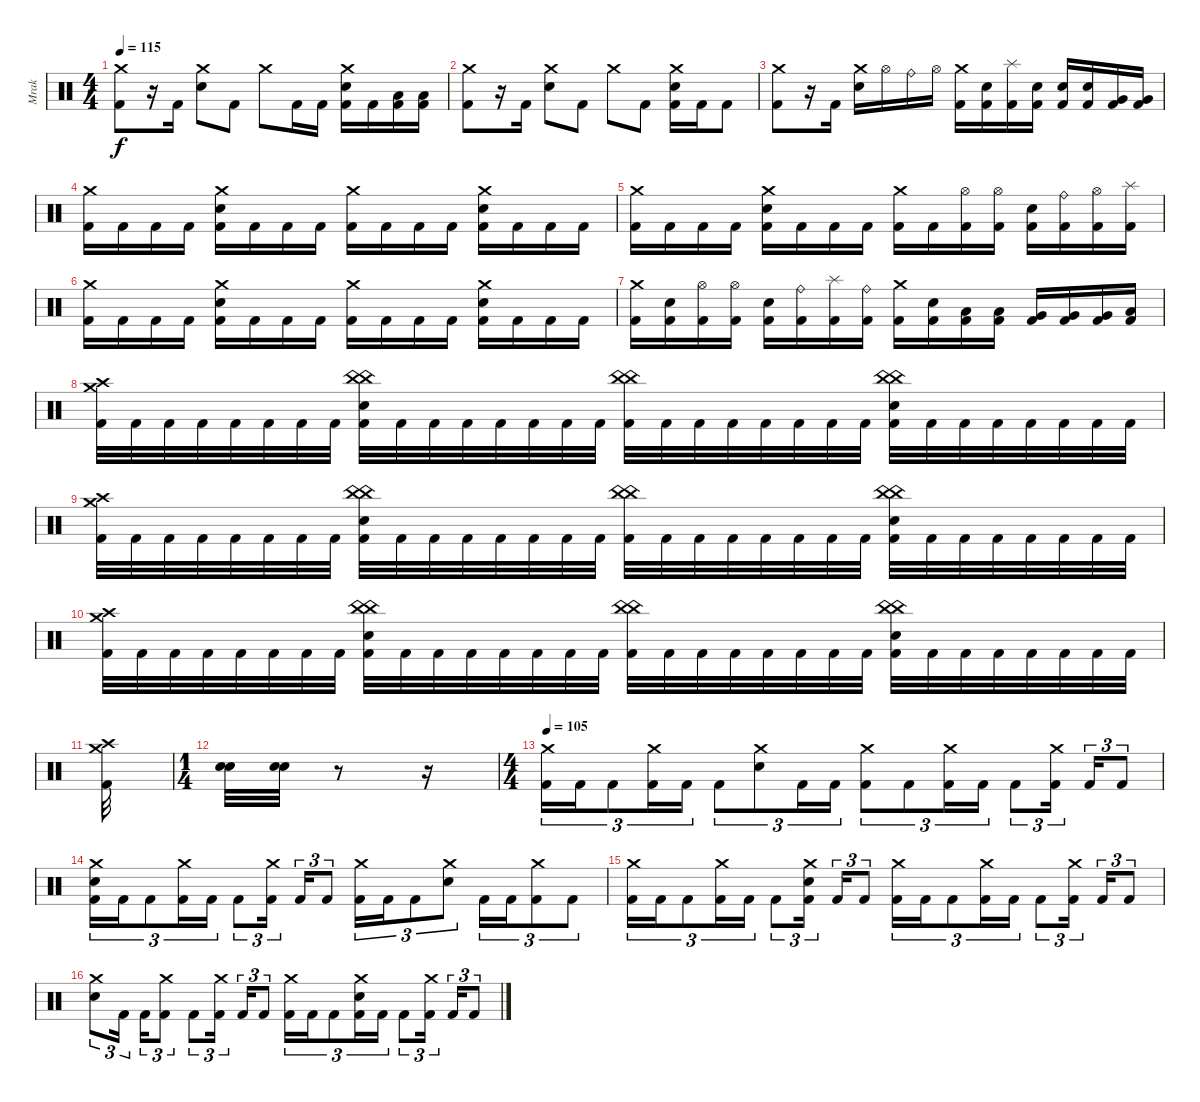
\track ("Mrak" "Mrak") {instrument percussion}
\staff {score}
\articulation defaults
\ts (4 4)
\tempo 115
\clef neutral
\ks c
("Crash medium (hit)" "Kick (hit) 2").8{dy f} r.16 "Kick (hit) 2".16 ("Crash medium (hit)" "Electric Snare (hit)").8 "Kick (hit) 2".8 "Crash medium (hit)".8 "Kick (hit) 2".16 "Kick (hit) 2".16 ("Crash medium (hit)" "Electric Snare (hit)" "Kick (hit) 2").16 "Kick (hit) 2".16 ("Low Tom (hit)" "Kick (hit) 2").16 ("Low Tom (hit)" "Kick (hit) 2").16 |
("Crash medium (hit)" "Kick (hit) 2").8 r.16 "Kick (hit) 2".16 ("Crash medium (hit)" "Electric Snare (hit)").8 "Kick (hit) 2".8 "Crash medium (hit)".8 "Kick (hit) 2".8 ("Crash medium (hit)" "Electric Snare (hit)" "Kick (hit) 2").16 "Kick (hit) 2".16 "Kick (hit) 2".8 |
("Crash medium (hit)" "Kick (hit) 2").8 r.16 "Kick (hit) 2".16 ("Crash medium (hit)" "Electric Snare (hit)").16 "Hi-Hat (open)".16 "Ride (bell)".16 "Hi-Hat (open)".16 ("Crash medium (hit)" "Kick (hit) 2").16 ("Electric Snare (hit)" "Kick (hit) 2").16 ("Splash (hit)" "Kick (hit) 2").16 ("Electric Snare (hit)" "Kick (hit) 2").16 ("Electric Snare (hit)" "Kick (hit) 2").16 ("Electric Snare (hit)" "Kick (hit) 2").16 ("Very Low Tom (hit)" "Kick (hit) 2").16 ("Very Low Tom (hit)" "Kick (hit) 2").16 |
("Kick (hit) 2" "Crash medium (hit)").16 "Kick (hit) 2".16 "Kick (hit) 2".16 "Kick (hit) 2".16 ("Kick (hit) 2" "Electric Snare (hit)" "Crash medium (hit)").16 "Kick (hit) 2".16 "Kick (hit) 2".16 "Kick (hit) 2".16 ("Kick (hit) 2" "Crash medium (hit)").16 "Kick (hit) 2".16 "Kick (hit) 2".16 "Kick (hit) 2".16 ("Kick (hit) 2" "Electric Snare (hit)" "Crash medium (hit)").16 "Kick (hit) 2".16 "Kick (hit) 2".16 "Kick (hit) 2".16 |
("Kick (hit) 2" "Crash medium (hit)").16 "Kick (hit) 2".16 "Kick (hit) 2".16 "Kick (hit) 2".16 ("Kick (hit) 2" "Electric Snare (hit)" "Crash medium (hit)").16 "Kick (hit) 2".16 "Kick (hit) 2".16 "Kick (hit) 2".16 ("Kick (hit) 2" "Crash medium (hit)").16 "Kick (hit) 2".16 ("Kick (hit) 2" "Hi-Hat (open)").16 ("Kick (hit) 2" "Hi-Hat (open)").16 ("Kick (hit) 2" "Electric Snare (hit)").16 ("Kick (hit) 2" "Ride (bell)").16 ("Kick (hit) 2" "Hi-Hat (open)").16 ("Kick (hit) 2" "Splash (hit)").16 |
("Kick (hit) 2" "Crash medium (hit)").16 "Kick (hit) 2".16 "Kick (hit) 2".16 "Kick (hit) 2".16 ("Kick (hit) 2" "Electric Snare (hit)" "Crash medium (hit)").16 "Kick (hit) 2".16 "Kick (hit) 2".16 "Kick (hit) 2".16 ("Kick (hit) 2" "Crash medium (hit)").16 "Kick (hit) 2".16 "Kick (hit) 2".16 "Kick (hit) 2".16 ("Kick (hit) 2" "Electric Snare (hit)" "Crash medium (hit)").16 "Kick (hit) 2".16 "Kick (hit) 2".16 "Kick (hit) 2".16 |
("Kick (hit) 2" "Crash medium (hit)").16 ("Kick (hit) 2" "Electric Snare (hit)").16 ("Kick (hit) 2" "Hi-Hat (open)").16 ("Kick (hit) 2" "Hi-Hat (open)").16 ("Kick (hit) 2" "Electric Snare (hit)").16 ("Kick (hit) 2" "Ride (bell)").16 ("Kick (hit) 2" "Splash (hit)").16 ("Kick (hit) 2" "Ride (bell)").16 ("Kick (hit) 2" "Crash medium (hit)").16 ("Kick (hit) 2" "Electric Snare (hit)").16 ("Kick (hit) 2" "Low Tom (hit)").16 ("Kick (hit) 2" "Low Tom (hit)").16 ("Kick (hit) 2" "Very Low Tom (hit)").16 ("Kick (hit) 2" "Very Low Tom (hit)").16 ("Kick (hit) 2" "Very Low Tom (hit)").16 ("Kick (hit) 2" "Low Floor Tom (hit)").16 |
("Kick (hit) 2" "Crash high (hit)" "Crash medium (hit)").32 "Kick (hit) 2".32 "Kick (hit) 2".32 "Kick (hit) 2".32 "Kick (hit) 2".32 "Kick (hit) 2".32 "Kick (hit) 2".32 "Kick (hit) 2".32 ("Kick (hit) 2" "Electric Snare (hit)" "China (hit)" "China (hit)").32 "Kick (hit) 2".32 "Kick (hit) 2".32 "Kick (hit) 2".32 "Kick (hit) 2".32 "Kick (hit) 2".32 "Kick (hit) 2".32 "Kick (hit) 2".32 ("Kick (hit) 2" "China (hit)" "China (hit)").32 "Kick (hit) 2".32 "Kick (hit) 2".32 "Kick (hit) 2".32 "Kick (hit) 2".32 "Kick (hit) 2".32 "Kick (hit) 2".32 "Kick (hit) 2".32 ("Kick (hit) 2" "Electric Snare (hit)" "China (hit)" "China (hit)").32 "Kick (hit) 2".32 "Kick (hit) 2".32 "Kick (hit) 2".32 "Kick (hit) 2".32 "Kick (hit) 2".32 "Kick (hit) 2".32 "Kick (hit) 2".32 |
("Kick (hit) 2" "Crash high (hit)" "Crash medium (hit)").32 "Kick (hit) 2".32 "Kick (hit) 2".32 "Kick (hit) 2".32 "Kick (hit) 2".32 "Kick (hit) 2".32 "Kick (hit) 2".32 "Kick (hit) 2".32 ("Kick (hit) 2" "Electric Snare (hit)" "China (hit)" "China (hit)").32 "Kick (hit) 2".32 "Kick (hit) 2".32 "Kick (hit) 2".32 "Kick (hit) 2".32 "Kick (hit) 2".32 "Kick (hit) 2".32 "Kick (hit) 2".32 ("Kick (hit) 2" "China (hit)" "China (hit)").32 "Kick (hit) 2".32 "Kick (hit) 2".32 "Kick (hit) 2".32 "Kick (hit) 2".32 "Kick (hit) 2".32 "Kick (hit) 2".32 "Kick (hit) 2".32 ("Kick (hit) 2" "Electric Snare (hit)" "China (hit)" "China (hit)").32 "Kick (hit) 2".32 "Kick (hit) 2".32 "Kick (hit) 2".32 "Kick (hit) 2".32 "Kick (hit) 2".32 "Kick (hit) 2".32 "Kick (hit) 2".32 |
("Kick (hit) 2" "Crash high (hit)" "Crash medium (hit)").32 "Kick (hit) 2".32 "Kick (hit) 2".32 "Kick (hit) 2".32 "Kick (hit) 2".32 "Kick (hit) 2".32 "Kick (hit) 2".32 "Kick (hit) 2".32 ("Kick (hit) 2" "Electric Snare (hit)" "China (hit)" "China (hit)").32 "Kick (hit) 2".32 "Kick (hit) 2".32 "Kick (hit) 2".32 "Kick (hit) 2".32 "Kick (hit) 2".32 "Kick (hit) 2".32 "Kick (hit) 2".32 ("Kick (hit) 2" "China (hit)" "China (hit)").32 "Kick (hit) 2".32 "Kick (hit) 2".32 "Kick (hit) 2".32 "Kick (hit) 2".32 "Kick (hit) 2".32 "Kick (hit) 2".32 "Kick (hit) 2".32 ("Kick (hit) 2" "Electric Snare (hit)" "China (hit)" "China (hit)").32 "Kick (hit) 2".32 "Kick (hit) 2".32 "Kick (hit) 2".32 "Kick (hit) 2".32 "Kick (hit) 2".32 "Kick (hit) 2".32 "Kick (hit) 2".32 |
("Kick (hit) 2" "Crash high (hit)" "Crash medium (hit)").32 |
\ts (1 4)
("Electric Snare (hit)" "Electric Snare (hit)").32 ("Electric Snare (hit)" "Electric Snare (hit)").32 r.8 r.16 |
\ts (4 4)
\tempo 105
("Crash medium (hit)" "Kick (hit) 2").16{tu (3 2)} "Kick (hit) 2".16{tu (3 2)} "Kick (hit) 2".8{tu (3 2)} ("Crash medium (hit)" "Kick (hit) 2").16{tu (3 2)} "Kick (hit) 2".16{tu (3 2)} "Kick (hit) 2".8{tu (3 2)} ("Crash medium (hit)" "Electric Snare (hit)").8{tu (3 2)} "Kick (hit) 2".16{tu (3 2)} "Kick (hit) 2".16{tu (3 2)} ("Crash medium (hit)" "Kick (hit) 2").8{tu (3 2)} "Kick (hit) 2".8{tu (3 2)} ("Crash medium (hit)" "Kick (hit) 2").16{tu (3 2)} "Kick (hit) 2".16{tu (3 2)} "Kick (hit) 2".8{tu (3 2)} ("Crash medium (hit)" "Kick (hit) 2").16{tu (3 2) beam splitsecondary} "Kick (hit) 2".16{tu (3 2)} "Kick (hit) 2".8{tu (3 2)} |
("Crash medium (hit)" "Electric Snare (hit)" "Kick (hit) 2").16{tu (3 2)} "Kick (hit) 2".16{tu (3 2)} "Kick (hit) 2".8{tu (3 2)} ("Crash medium (hit)" "Kick (hit) 2").16{tu (3 2)} "Kick (hit) 2".16{tu (3 2)} "Kick (hit) 2".8{tu (3 2)} ("Crash medium (hit)" "Kick (hit) 2").16{tu (3 2) beam splitsecondary} "Kick (hit) 2".16{tu (3 2)} "Kick (hit) 2".8{tu (3 2)} ("Crash medium (hit)" "Kick (hit) 2").16{tu (3 2)} "Kick (hit) 2".16{tu (3 2)} "Kick (hit) 2".8{tu (3 2)} ("Crash medium (hit)" "Electric Snare (hit)").8{tu (3 2)} "Kick (hit) 2".16{tu (3 2)} "Kick (hit) 2".16{tu (3 2)} ("Crash medium (hit)" "Kick (hit) 2").8{tu (3 2)} "Kick (hit) 2".8{tu (3 2)} |
("Crash medium (hit)" "Kick (hit) 2").16{tu (3 2)} "Kick (hit) 2".16{tu (3 2)} "Kick (hit) 2".8{tu (3 2)} ("Crash medium (hit)" "Kick (hit) 2").16{tu (3 2)} "Kick (hit) 2".16{tu (3 2)} "Kick (hit) 2".8{tu (3 2)} ("Crash medium (hit)" "Electric Snare (hit)" "Kick (hit) 2").16{tu (3 2) beam splitsecondary} "Kick (hit) 2".16{tu (3 2)} "Kick (hit) 2".8{tu (3 2)} ("Crash medium (hit)" "Kick (hit) 2").16{tu (3 2)} "Kick (hit) 2".16{tu (3 2)} "Kick (hit) 2".8{tu (3 2)} ("Crash medium (hit)" "Kick (hit) 2").16{tu (3 2)} "Kick (hit) 2".16{tu (3 2)} "Kick (hit) 2".8{tu (3 2)} ("Crash medium (hit)" "Kick (hit) 2").16{tu (3 2) beam splitsecondary} "Kick (hit) 2".16{tu (3 2)} "Kick (hit) 2".8{tu (3 2)} |
("Crash medium (hit)" "Electric Snare (hit)").8{tu (3 2)} "Kick (hit) 2".16{tu (3 2) beam splitsecondary} "Kick (hit) 2".16{tu (3 2)} ("Crash medium (hit)" "Kick (hit) 2").8{tu (3 2)} "Kick (hit) 2".8{tu (3 2)} ("Crash medium (hit)" "Kick (hit) 2").16{tu (3 2) beam splitsecondary} "Kick (hit) 2".16{tu (3 2)} "Kick (hit) 2".8{tu (3 2)} ("Crash medium (hit)" "Kick (hit) 2").16{tu (3 2)} "Kick (hit) 2".16{tu (3 2)} "Kick (hit) 2".8{tu (3 2)} ("Crash medium (hit)" "Electric Snare (hit)" "Kick (hit) 2").16{tu (3 2)} "Kick (hit) 2".16{tu (3 2)} "Kick (hit) 2".8{tu (3 2)} ("Crash medium (hit)" "Kick (hit) 2").16{tu (3 2) beam splitsecondary} "Kick (hit) 2".16{tu (3 2)} "Kick (hit) 2".8{tu (3 2)}
